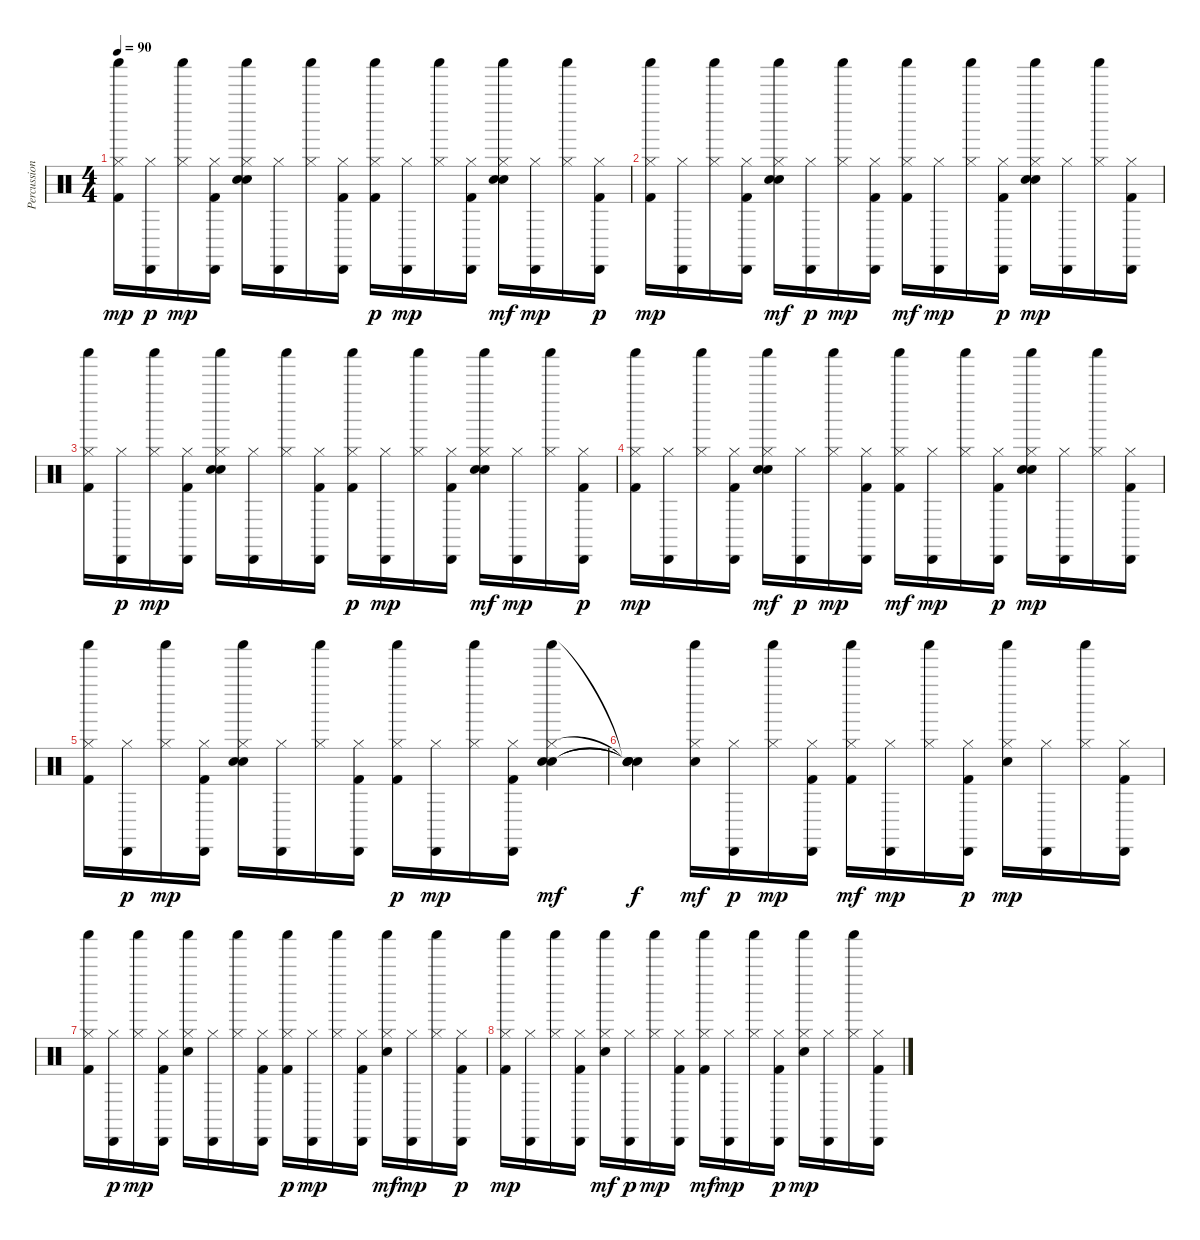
\track ("Percussions" "Percussion") {instrument percussion}
\staff {score}
\articulation defaults
\ts (4 4)
\tempo 90
\clef neutral
\ks c
("Kick (hit) 2" "Hi-Hat (closed)" "Shaker (hit)").16{dy mp} ("Hi-Hat (closed)" "Cabasa (hit)").16{dy p} ("Hi-Hat (closed)" "Shaker (hit)").16{dy mp} ("Kick (hit) 2" "Hi-Hat (closed)" "Cabasa (hit)").16 ("Hand Clap (hit)" "Electric Snare (hit)" "Hi-Hat (closed)" "Shaker (hit)").16 ("Hi-Hat (closed)" "Cabasa (hit)").16 ("Hi-Hat (closed)" "Shaker (hit)").16 ("Kick (hit) 2" "Hi-Hat (closed)" "Cabasa (hit)").16 ("Kick (hit) 2" "Hi-Hat (closed)" "Shaker (hit)").16{dy p} ("Hi-Hat (closed)" "Cabasa (hit)").16{dy mp} ("Hi-Hat (closed)" "Shaker (hit)").16 ("Kick (hit) 2" "Hi-Hat (closed)" "Cabasa (hit)").16 ("Hand Clap (hit)" "Electric Snare (hit)" "Hi-Hat (closed)" "Shaker (hit)").16{dy mf} ("Hi-Hat (closed)" "Cabasa (hit)").16{dy mp} ("Hi-Hat (closed)" "Shaker (hit)").16 ("Kick (hit) 2" "Hi-Hat (closed)" "Cabasa (hit)").16{dy p} |
("Kick (hit) 2" "Hi-Hat (closed)" "Shaker (hit)").16{dy mp} ("Hi-Hat (closed)" "Cabasa (hit)").16 ("Hi-Hat (closed)" "Shaker (hit)").16 ("Kick (hit) 2" "Hi-Hat (closed)" "Cabasa (hit)").16 ("Hand Clap (hit)" "Electric Snare (hit)" "Hi-Hat (closed)" "Shaker (hit)").16{dy mf} ("Hi-Hat (closed)" "Cabasa (hit)").16{dy p} ("Hi-Hat (closed)" "Shaker (hit)").16{dy mp} ("Kick (hit) 2" "Hi-Hat (closed)" "Cabasa (hit)").16 ("Kick (hit) 2" "Hi-Hat (closed)" "Shaker (hit)").16{dy mf} ("Hi-Hat (closed)" "Cabasa (hit)").16{dy mp} ("Hi-Hat (closed)" "Shaker (hit)").16 ("Kick (hit) 2" "Hi-Hat (closed)" "Cabasa (hit)").16{dy p} ("Hand Clap (hit)" "Electric Snare (hit)" "Hi-Hat (closed)" "Shaker (hit)").16{dy mp} ("Hi-Hat (closed)" "Cabasa (hit)").16 ("Hi-Hat (closed)" "Shaker (hit)").16 ("Kick (hit) 2" "Hi-Hat (closed)" "Cabasa (hit)").16 |
("Kick (hit) 2" "Hi-Hat (closed)" "Shaker (hit)").16 ("Hi-Hat (closed)" "Cabasa (hit)").16{dy p} ("Hi-Hat (closed)" "Shaker (hit)").16{dy mp} ("Kick (hit) 2" "Hi-Hat (closed)" "Cabasa (hit)").16 ("Hand Clap (hit)" "Electric Snare (hit)" "Hi-Hat (closed)" "Shaker (hit)").16 ("Hi-Hat (closed)" "Cabasa (hit)").16 ("Hi-Hat (closed)" "Shaker (hit)").16 ("Kick (hit) 2" "Hi-Hat (closed)" "Cabasa (hit)").16 ("Kick (hit) 2" "Hi-Hat (closed)" "Shaker (hit)").16{dy p} ("Hi-Hat (closed)" "Cabasa (hit)").16{dy mp} ("Hi-Hat (closed)" "Shaker (hit)").16 ("Kick (hit) 2" "Hi-Hat (closed)" "Cabasa (hit)").16 ("Hand Clap (hit)" "Electric Snare (hit)" "Hi-Hat (closed)" "Shaker (hit)").16{dy mf} ("Hi-Hat (closed)" "Cabasa (hit)").16{dy mp} ("Hi-Hat (closed)" "Shaker (hit)").16 ("Kick (hit) 2" "Hi-Hat (closed)" "Cabasa (hit)").16{dy p} |
("Kick (hit) 2" "Hi-Hat (closed)" "Shaker (hit)").16{dy mp} ("Hi-Hat (closed)" "Cabasa (hit)").16 ("Hi-Hat (closed)" "Shaker (hit)").16 ("Kick (hit) 2" "Hi-Hat (closed)" "Cabasa (hit)").16 ("Hand Clap (hit)" "Electric Snare (hit)" "Hi-Hat (closed)" "Shaker (hit)").16{dy mf} ("Hi-Hat (closed)" "Cabasa (hit)").16{dy p} ("Hi-Hat (closed)" "Shaker (hit)").16{dy mp} ("Kick (hit) 2" "Hi-Hat (closed)" "Cabasa (hit)").16 ("Kick (hit) 2" "Hi-Hat (closed)" "Shaker (hit)").16{dy mf} ("Hi-Hat (closed)" "Cabasa (hit)").16{dy mp} ("Hi-Hat (closed)" "Shaker (hit)").16 ("Kick (hit) 2" "Hi-Hat (closed)" "Cabasa (hit)").16{dy p} ("Hand Clap (hit)" "Electric Snare (hit)" "Hi-Hat (closed)" "Shaker (hit)").16{dy mp} ("Hi-Hat (closed)" "Cabasa (hit)").16 ("Hi-Hat (closed)" "Shaker (hit)").16 ("Kick (hit) 2" "Hi-Hat (closed)" "Cabasa (hit)").16 |
("Kick (hit) 2" "Hi-Hat (closed)" "Shaker (hit)").16 ("Hi-Hat (closed)" "Cabasa (hit)").16{dy p} ("Hi-Hat (closed)" "Shaker (hit)").16{dy mp} ("Kick (hit) 2" "Hi-Hat (closed)" "Cabasa (hit)").16 ("Hand Clap (hit)" "Electric Snare (hit)" "Hi-Hat (closed)" "Shaker (hit)").16 ("Hi-Hat (closed)" "Cabasa (hit)").16 ("Hi-Hat (closed)" "Shaker (hit)").16 ("Kick (hit) 2" "Hi-Hat (closed)" "Cabasa (hit)").16 ("Kick (hit) 2" "Hi-Hat (closed)" "Shaker (hit)").16{dy p} ("Hi-Hat (closed)" "Cabasa (hit)").16{dy mp} ("Hi-Hat (closed)" "Shaker (hit)").16 ("Kick (hit) 2" "Hi-Hat (closed)" "Cabasa (hit)").16 ("Hand Clap (hit)" "Electric Snare (hit)" "Hi-Hat (closed)" "Shaker (hit)").4{dy mf} |
("Snare (hit)"{t} "Snare (hit)"{t} "Snare (hit)"{t} "Snare (hit)"{t}).4{dy f} ("Electric Snare (hit)" "Hi-Hat (closed)" "Shaker (hit)").16{dy mf} ("Hi-Hat (closed)" "Cabasa (hit)").16{dy p} ("Hi-Hat (closed)" "Shaker (hit)").16{dy mp} ("Kick (hit) 2" "Hi-Hat (closed)" "Cabasa (hit)").16 ("Kick (hit) 2" "Hi-Hat (closed)" "Shaker (hit)").16{dy mf} ("Hi-Hat (closed)" "Cabasa (hit)").16{dy mp} ("Hi-Hat (closed)" "Shaker (hit)").16 ("Kick (hit) 2" "Hi-Hat (closed)" "Cabasa (hit)").16{dy p} ("Electric Snare (hit)" "Hi-Hat (closed)" "Shaker (hit)").16{dy mp} ("Hi-Hat (closed)" "Cabasa (hit)").16 ("Hi-Hat (closed)" "Shaker (hit)").16 ("Kick (hit) 2" "Hi-Hat (closed)" "Cabasa (hit)").16 |
("Kick (hit) 2" "Hi-Hat (closed)" "Shaker (hit)").16 ("Hi-Hat (closed)" "Cabasa (hit)").16{dy p} ("Hi-Hat (closed)" "Shaker (hit)").16{dy mp} ("Kick (hit) 2" "Hi-Hat (closed)" "Cabasa (hit)").16 ("Electric Snare (hit)" "Hi-Hat (closed)" "Shaker (hit)").16 ("Hi-Hat (closed)" "Cabasa (hit)").16 ("Hi-Hat (closed)" "Shaker (hit)").16 ("Kick (hit) 2" "Hi-Hat (closed)" "Cabasa (hit)").16 ("Kick (hit) 2" "Hi-Hat (closed)" "Shaker (hit)").16{dy p} ("Hi-Hat (closed)" "Cabasa (hit)").16{dy mp} ("Hi-Hat (closed)" "Shaker (hit)").16 ("Kick (hit) 2" "Hi-Hat (closed)" "Cabasa (hit)").16 ("Electric Snare (hit)" "Hi-Hat (closed)" "Shaker (hit)").16{dy mf} ("Hi-Hat (closed)" "Cabasa (hit)").16{dy mp} ("Hi-Hat (closed)" "Shaker (hit)").16 ("Kick (hit) 2" "Hi-Hat (closed)" "Cabasa (hit)").16{dy p} |
("Kick (hit) 2" "Hi-Hat (closed)" "Shaker (hit)").16{dy mp} ("Hi-Hat (closed)" "Cabasa (hit)").16 ("Hi-Hat (closed)" "Shaker (hit)").16 ("Kick (hit) 2" "Hi-Hat (closed)" "Cabasa (hit)").16 ("Electric Snare (hit)" "Hi-Hat (closed)" "Shaker (hit)").16{dy mf} ("Hi-Hat (closed)" "Cabasa (hit)").16{dy p} ("Hi-Hat (closed)" "Shaker (hit)").16{dy mp} ("Kick (hit) 2" "Hi-Hat (closed)" "Cabasa (hit)").16 ("Kick (hit) 2" "Hi-Hat (closed)" "Shaker (hit)").16{dy mf} ("Hi-Hat (closed)" "Cabasa (hit)").16{dy mp} ("Hi-Hat (closed)" "Shaker (hit)").16 ("Kick (hit) 2" "Hi-Hat (closed)" "Cabasa (hit)").16{dy p} ("Electric Snare (hit)" "Hi-Hat (closed)" "Shaker (hit)").16{dy mp} ("Hi-Hat (closed)" "Cabasa (hit)").16 ("Hi-Hat (closed)" "Shaker (hit)").16 ("Kick (hit) 2" "Hi-Hat (closed)" "Cabasa (hit)").16
